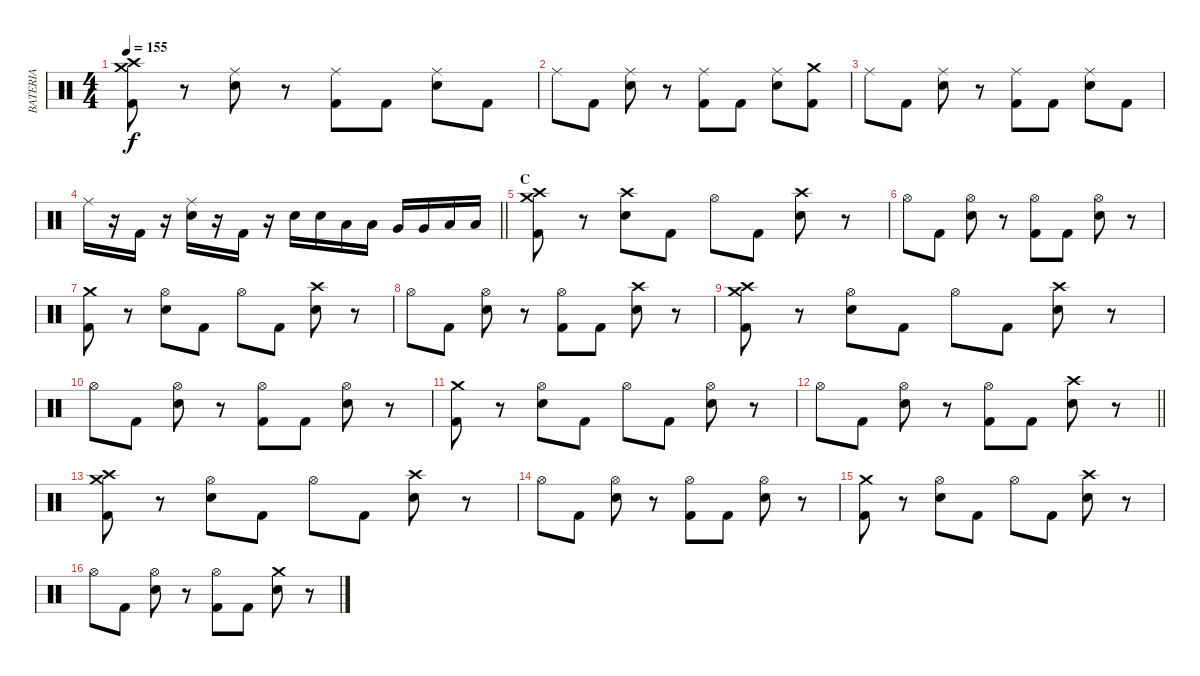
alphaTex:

\track ("BATERIA" "BATERIA") {instrument percussion}
\staff {score}
\articulation defaults
\ts (4 4)
\tempo 155
\clef neutral
\ks c
("Kick (hit) 2" "Crash high (hit)" "Crash medium (hit)").8{dy f} r.8 ("Ride (middle)" "Electric Snare (hit)").8 r.8 ("Kick (hit) 2" "Ride (middle)").8 "Kick (hit) 2".8 ("Ride (middle)" "Electric Snare (hit)").8 "Kick (hit) 2".8 |
"Ride (middle)".8 "Kick (hit) 2".8 ("Ride (middle)" "Electric Snare (hit)").8 r.8 ("Kick (hit) 2" "Ride (middle)").8 "Kick (hit) 2".8 ("Ride (middle)" "Electric Snare (hit)").8 ("Kick (hit) 2" "Crash medium (hit)").8 |
"Ride (middle)".8 "Kick (hit) 2".8 ("Ride (middle)" "Electric Snare (hit)").8 r.8 ("Kick (hit) 2" "Ride (middle)").8 "Kick (hit) 2".8 ("Ride (middle)" "Electric Snare (hit)").8 "Kick (hit) 2".8 |
\barLineRight lightlight "Ride (middle)".16
r.16 "Kick (hit) 2".16 r.16 ("Ride (middle)" "Electric Snare (hit)").16 r.16 "Kick (hit) 2".16 r.16 "Electric Snare (hit)".16 "Electric Snare (hit)".16 "Low Tom (hit)".16 "Low Tom (hit)".16 "Very Low Tom (hit)".16 "Very Low Tom (hit)".16 "Low Floor Tom (hit)".16 "Low Floor Tom (hit)".16 |
\section ("" "C")
("Kick (hit) 2" "Crash high (hit)" "Crash medium (hit)").8 r.8 ("Electric Snare (hit)" "Crash high (hit)").8 "Kick (hit) 2".8 "Hi-Hat (open)".8 "Kick (hit) 2".8 ("Electric Snare (hit)" "Crash high (hit)").8 r.8 |
"Hi-Hat (open)".8 "Kick (hit) 2".8 ("Hi-Hat (open)" "Electric Snare (hit)").8 r.8 ("Kick (hit) 2" "Hi-Hat (open)").8 "Kick (hit) 2".8 ("Hi-Hat (open)" "Electric Snare (hit)").8 r.8 |
("Kick (hit) 2" "Crash medium (hit)").8 r.8 ("Hi-Hat (open)" "Electric Snare (hit)").8 "Kick (hit) 2".8 "Hi-Hat (open)".8 "Kick (hit) 2".8 ("Electric Snare (hit)" "Crash high (hit)").8 r.8 |
"Hi-Hat (open)".8 "Kick (hit) 2".8 ("Hi-Hat (open)" "Electric Snare (hit)").8 r.8 ("Kick (hit) 2" "Hi-Hat (open)").8 "Kick (hit) 2".8 ("Electric Snare (hit)" "Crash high (hit)").8 r.8 |
("Kick (hit) 2" "Crash high (hit)" "Crash medium (hit)").8 r.8 ("Hi-Hat (open)" "Electric Snare (hit)").8 "Kick (hit) 2".8 "Hi-Hat (open)".8 "Kick (hit) 2".8 ("Electric Snare (hit)" "Crash high (hit)").8 r.8 |
"Hi-Hat (open)".8 "Kick (hit) 2".8 ("Hi-Hat (open)" "Electric Snare (hit)").8 r.8 ("Kick (hit) 2" "Hi-Hat (open)").8 "Kick (hit) 2".8 ("Hi-Hat (open)" "Electric Snare (hit)").8 r.8 |
("Kick (hit) 2" "Crash medium (hit)").8 r.8 ("Hi-Hat (open)" "Electric Snare (hit)").8 "Kick (hit) 2".8 "Hi-Hat (open)".8 "Kick (hit) 2".8 ("Hi-Hat (open)" "Electric Snare (hit)").8 r.8 |
\barLineRight lightlight "Hi-Hat (open)".8 "Kick (hit) 2".8
("Hi-Hat (open)" "Electric Snare (hit)").8 r.8 ("Kick (hit) 2" "Hi-Hat (open)").8 "Kick (hit) 2".8 ("Electric Snare (hit)" "Crash high (hit)").8 r.8 |
("Kick (hit) 2" "Crash high (hit)" "Crash medium (hit)").8 r.8 ("Hi-Hat (open)" "Electric Snare (hit)").8 "Kick (hit) 2".8 "Hi-Hat (open)".8 "Kick (hit) 2".8 ("Electric Snare (hit)" "Crash high (hit)").8 r.8 |
"Hi-Hat (open)".8 "Kick (hit) 2".8 ("Hi-Hat (open)" "Electric Snare (hit)").8 r.8 ("Kick (hit) 2" "Hi-Hat (open)").8 "Kick (hit) 2".8 ("Hi-Hat (open)" "Electric Snare (hit)").8 r.8 |
("Kick (hit) 2" "Crash medium (hit)").8 r.8 ("Hi-Hat (open)" "Electric Snare (hit)").8 "Kick (hit) 2".8 "Hi-Hat (open)".8 "Kick (hit) 2".8 ("Electric Snare (hit)" "Crash high (hit)").8 r.8 |
"Hi-Hat (open)".8 "Kick (hit) 2".8 ("Hi-Hat (open)" "Electric Snare (hit)").8 r.8 ("Kick (hit) 2" "Hi-Hat (open)").8 "Kick (hit) 2".8 ("Electric Snare (hit)" "Crash medium (hit)").8 r.8
